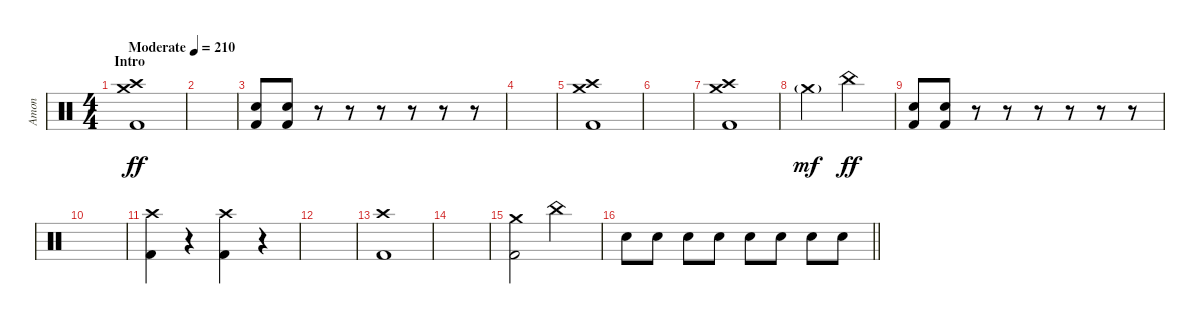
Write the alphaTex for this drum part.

\track ("Amon" "Amon") {instrument percussion bank 177}
\staff {score}
\articulation defaults
\ts (4 4)
\section ("" "Intro")
\tempo (210 "Moderate")
\clef neutral
\ks c
("Crash high (hit)" "Crash medium (hit)" "Kick (hit) 2").1{dy ff} |
|
("Snare (hit) 2" "Kick (hit) 2").8 ("Snare (hit) 2" "Kick (hit) 2").8 r.8 r.8 r.8 r.8{beam merge} r.8{beam merge} r.8 |
|
("Crash high (hit)" "Crash medium (hit)" "Kick (hit) 2").1 |
|
("Crash high (hit)" "Crash medium (hit)" "Kick (hit) 2").1 |
"Crash medium (hit)"{g}.2{dy mf} "China (hit)".2{dy ff} |
("Snare (hit) 2" "Kick (hit) 2").8 ("Snare (hit) 2" "Kick (hit) 2").8{beam merge} r.8 r.8 r.8 r.8{beam merge} r.8 r.8 |
|
("Crash high (hit)" "Kick (hit) 2").4 r.4{volume 0} ("Crash high (hit)" "Kick (hit) 2").4{volume 13} r.4{volume 0} |
|
("Crash high (hit)" "Kick (hit) 2").1{volume 13} |
|
("Crash medium (hit)" "Kick (hit) 2").2 "China (hit)".2 |
\barLineRight lightlight "Snare (hit) 2".8 "Snare (hit) 2".8 "Snare (hit) 2".8 "Snare (hit) 2".8 "Snare (hit) 2".8 "Snare (hit) 2".8 "Snare (hit) 2".8 "Snare (hit) 2".8
